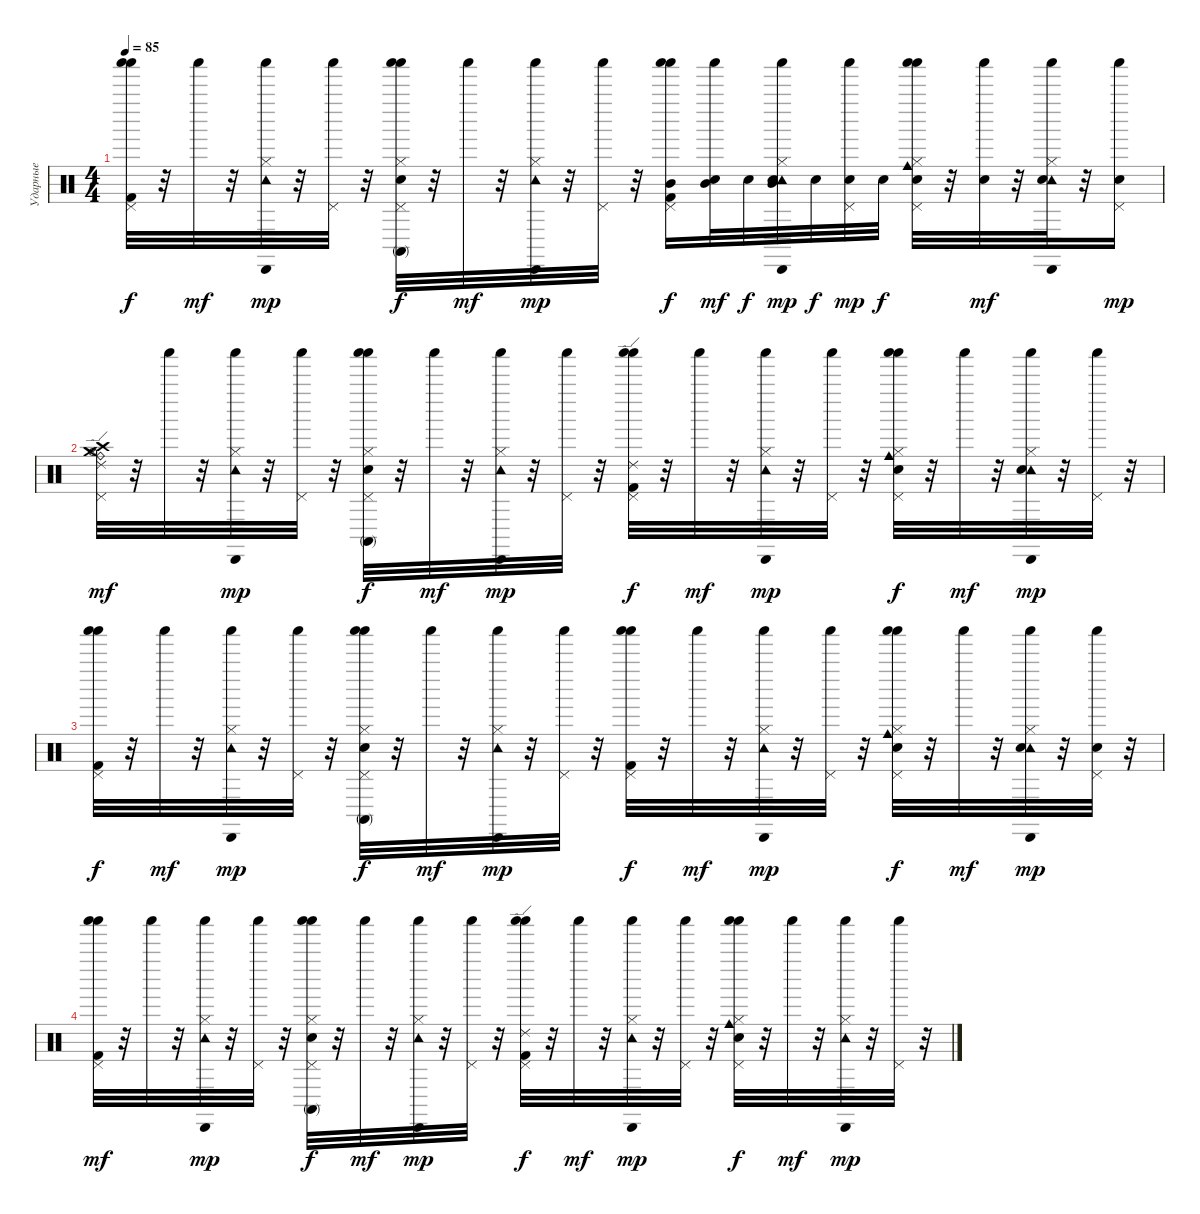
\track ("Ударные" "Ударные") {instrument percussion}
\staff {score}
\articulation defaults
\ts (4 4)
\tempo 85
\clef neutral
\ks c
("Pedal Hi-Hat (hit)" "Shaker (hit)" "Shaker (hit)" "Kick (hit) 2").32{dy f volume 9} r.32 "Shaker (hit)".32{dy mf volume 9} r.32 ("Hi-Hat (closed)" "Cabasa (hit)" "Shaker (hit)" "Tambourine (hit)").32{dy mp volume 9} r.32 ("Pedal Hi-Hat (hit)" "Shaker (hit)").32{volume 9} r.32 ("Hi-Hat (closed)" "Conga high (mute)" "Pedal Hi-Hat (hit)" "Shaker (hit)" "Shaker (hit)" "Snare (hit) 2").32{dy f volume 9} r.32 "Shaker (hit)".32{dy mf volume 9} r.32 ("Hi-Hat (closed)" "Cabasa (hit)" "Shaker (hit)" "Tambourine (hit)").32{dy mp volume 9} r.32 ("Pedal Hi-Hat (hit)" "Shaker (hit)").32{volume 8} r.32 ("Mid Tom (hit)" "Pedal Hi-Hat (hit)" "Shaker (hit)" "Shaker (hit)" "Kick (hit) 2").16{dy f volume 8} ("Mid Tom (hit)" "Shaker (hit)" "Snare (hit) 2").32{dy mf volume 8} "Snare (hit) 2".32{dy f volume 8} ("Mid Tom (hit)" "Hi-Hat (closed)" "Cabasa (hit)" "Shaker (hit)" "Tambourine (hit)" "Snare (hit) 2").32{dy mp volume 8} "Snare (hit) 2".32{dy f volume 8} ("Pedal Hi-Hat (hit)" "Shaker (hit)" "Snare (hit) 2").32{dy mp volume 8} "Snare (hit) 2".32{dy f volume 8} ("Cowbell medium (hit)" "Hi-Hat (closed)" "Pedal Hi-Hat (hit)" "Shaker (hit)" "Shaker (hit)" "Snare (hit) 2").32{volume 8} r.32 ("Shaker (hit)" "Snare (hit) 2").32{dy mf volume 8} r.32 ("Hi-Hat (closed)" "Cabasa (hit)" "Shaker (hit)" "Tambourine (hit)" "Snare (hit) 2").32{volume 8} r.32 ("Pedal Hi-Hat (hit)" "Shaker (hit)" "Snare (hit) 2").16{dy mp volume 8} |
("Ride (bell)" "Hi-Hat (open)" "Crash high (hit)" "Ride (edge) 2" "Crash medium (hit)" "Pedal Hi-Hat (hit)").32{dy mf volume 8} r.32 "Shaker (hit)".32{volume 8} r.32 ("Hi-Hat (closed)" "Cabasa (hit)" "Shaker (hit)" "Tambourine (hit)").32{dy mp volume 8} r.32 ("Pedal Hi-Hat (hit)" "Shaker (hit)").32{volume 8} r.32 ("Hi-Hat (closed)" "Conga high (mute)" "Pedal Hi-Hat (hit)" "Shaker (hit)" "Shaker (hit)" "Snare (hit) 2").32{dy f volume 7} r.32 "Shaker (hit)".32{dy mf volume 7} r.32 ("Hi-Hat (closed)" "Cabasa (hit)" "Shaker (hit)" "Tambourine (hit)").32{dy mp volume 7} r.32 ("Pedal Hi-Hat (hit)" "Shaker (hit)").32{volume 7} r.32 ("Ride (edge) 2" "Pedal Hi-Hat (hit)" "Shaker (hit)" "Shaker (hit)" "Kick (hit) 2").32{dy f volume 7} r.32 "Shaker (hit)".32{dy mf volume 7} r.32 ("Hi-Hat (closed)" "Cabasa (hit)" "Shaker (hit)" "Tambourine (hit)").32{dy mp volume 7} r.32 ("Pedal Hi-Hat (hit)" "Shaker (hit)").32{volume 7} r.32 ("Cowbell medium (hit)" "Hi-Hat (closed)" "Pedal Hi-Hat (hit)" "Shaker (hit)" "Shaker (hit)" "Snare (hit) 2").32{dy f volume 7} r.32 "Shaker (hit)".32{dy mf volume 7} r.32 ("Hi-Hat (closed)" "Cabasa (hit)" "Shaker (hit)" "Tambourine (hit)" "Snare (hit) 2").32{dy mp volume 7} r.32 ("Pedal Hi-Hat (hit)" "Shaker (hit)").32{volume 7} r.32 |
("Pedal Hi-Hat (hit)" "Shaker (hit)" "Shaker (hit)" "Kick (hit) 2").32{dy f volume 6} r.32 "Shaker (hit)".32{dy mf volume 6} r.32 ("Hi-Hat (closed)" "Cabasa (hit)" "Shaker (hit)" "Tambourine (hit)").32{dy mp volume 6} r.32 ("Pedal Hi-Hat (hit)" "Shaker (hit)").32{volume 6} r.32 ("Hi-Hat (closed)" "Conga high (mute)" "Pedal Hi-Hat (hit)" "Shaker (hit)" "Shaker (hit)" "Snare (hit) 2").32{dy f volume 6} r.32 "Shaker (hit)".32{dy mf volume 6} r.32 ("Hi-Hat (closed)" "Cabasa (hit)" "Shaker (hit)" "Tambourine (hit)").32{dy mp volume 6} r.32 ("Pedal Hi-Hat (hit)" "Shaker (hit)").32{volume 6} r.32 ("Pedal Hi-Hat (hit)" "Shaker (hit)" "Shaker (hit)" "Kick (hit) 2").32{dy f volume 6} r.32 "Shaker (hit)".32{dy mf volume 6} r.32 ("Hi-Hat (closed)" "Cabasa (hit)" "Shaker (hit)" "Tambourine (hit)").32{dy mp volume 6} r.32 ("Pedal Hi-Hat (hit)" "Shaker (hit)").32{volume 6} r.32 ("Cowbell medium (hit)" "Hi-Hat (closed)" "Pedal Hi-Hat (hit)" "Shaker (hit)" "Shaker (hit)" "Snare (hit) 2").32{dy f volume 6} r.32 "Shaker (hit)".32{dy mf volume 6} r.32 ("Hi-Hat (closed)" "Cabasa (hit)" "Shaker (hit)" "Tambourine (hit)" "Snare (hit) 2").32{dy mp volume 6} r.32 ("Pedal Hi-Hat (hit)" "Shaker (hit)" "Snare (hit) 2").32{volume 6} r.32 |
("Pedal Hi-Hat (hit)" "Shaker (hit)" "Shaker (hit)" "Kick (hit) 2").32{dy mf volume 5} r.32 "Shaker (hit)".32{volume 5} r.32 ("Hi-Hat (closed)" "Cabasa (hit)" "Shaker (hit)" "Tambourine (hit)").32{dy mp volume 5} r.32 ("Pedal Hi-Hat (hit)" "Shaker (hit)").32{volume 5} r.32 ("Hi-Hat (closed)" "Conga high (mute)" "Pedal Hi-Hat (hit)" "Shaker (hit)" "Shaker (hit)" "Snare (hit) 2").32{dy f volume 5} r.32 "Shaker (hit)".32{dy mf volume 5} r.32 ("Hi-Hat (closed)" "Cabasa (hit)" "Shaker (hit)" "Tambourine (hit)").32{dy mp volume 5} r.32 ("Pedal Hi-Hat (hit)" "Shaker (hit)").32{volume 5} r.32 ("Ride (edge) 2" "Pedal Hi-Hat (hit)" "Shaker (hit)" "Shaker (hit)" "Kick (hit) 2").32{dy f volume 5} r.32 "Shaker (hit)".32{dy mf volume 5} r.32 ("Hi-Hat (closed)" "Cabasa (hit)" "Shaker (hit)" "Tambourine (hit)").32{dy mp volume 5} r.32 ("Pedal Hi-Hat (hit)" "Shaker (hit)").32{volume 5} r.32 ("Cowbell medium (hit)" "Hi-Hat (closed)" "Pedal Hi-Hat (hit)" "Shaker (hit)" "Shaker (hit)" "Snare (hit) 2").32{dy f volume 4} r.32 "Shaker (hit)".32{dy mf volume 4} r.32 ("Hi-Hat (closed)" "Cabasa (hit)" "Shaker (hit)" "Tambourine (hit)").32{dy mp volume 4} r.32 ("Pedal Hi-Hat (hit)" "Shaker (hit)").32{volume 4} r.32
